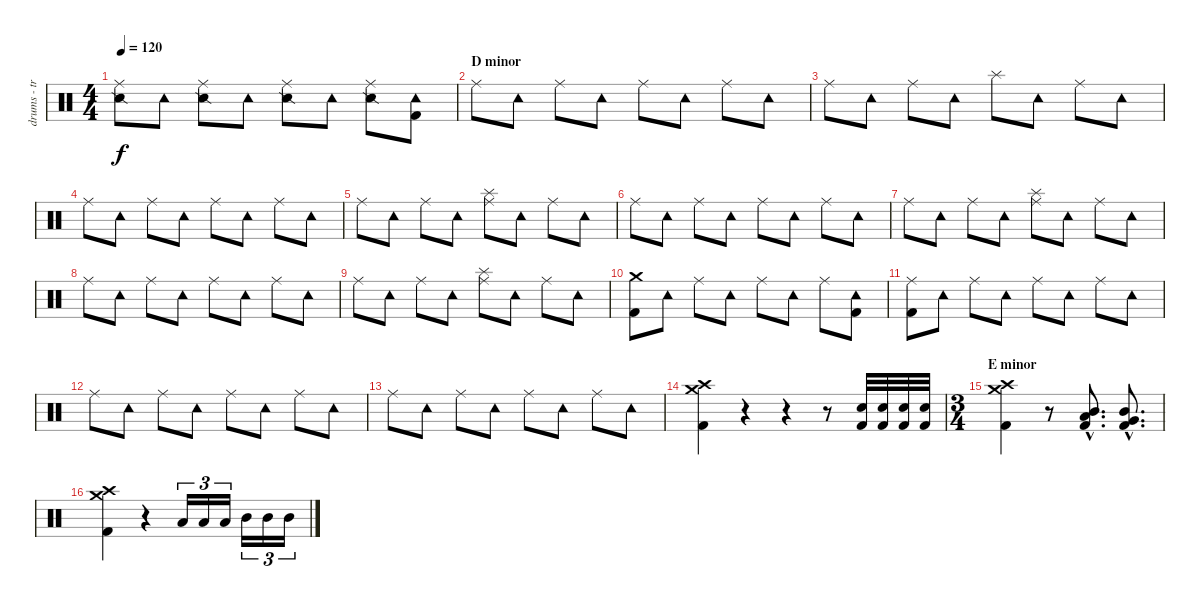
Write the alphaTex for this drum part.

\track ("drums - trash and prog sections" "drums - tr") {instrument percussion}
\staff {score}
\articulation defaults
\ts (4 4)
\tempo 120
\clef neutral
\ks c
("Ride (middle)" "Snare (side stick) 2").8{dy f} "Tambourine (hit)".8 ("Ride (middle)" "Snare (side stick) 2").8 "Tambourine (hit)".8 ("Ride (middle)" "Snare (side stick) 2").8 "Tambourine (hit)".8 ("Ride (middle)" "Snare (side stick) 2").8 ("Tambourine (hit)" "Kick (hit) 2").8 |
\section ("" "D minor")
"Ride (middle)".8 "Tambourine (hit)".8 "Ride (middle)".8 "Tambourine (hit)".8 "Ride (middle)".8 "Tambourine (hit)".8 "Ride (middle)".8 "Tambourine (hit)".8 |
"Ride (middle)".8 "Tambourine (hit)".8 "Ride (middle)".8 "Tambourine (hit)".8 "Splash (hit)".8 "Tambourine (hit)".8 "Ride (middle)".8 "Tambourine (hit)".8 |
"Ride (middle)".8 "Tambourine (hit)".8 "Ride (middle)".8 "Tambourine (hit)".8 "Ride (middle)".8 "Tambourine (hit)".8 "Ride (middle)".8 "Tambourine (hit)".8 |
"Ride (middle)".8 "Tambourine (hit)".8 "Ride (middle)".8 "Tambourine (hit)".8 ("Ride (middle)" "Splash (hit)").8 "Tambourine (hit)".8 "Ride (middle)".8 "Tambourine (hit)".8 |
"Ride (middle)".8 "Tambourine (hit)".8 "Ride (middle)".8 "Tambourine (hit)".8 "Ride (middle)".8 "Tambourine (hit)".8 "Ride (middle)".8 "Tambourine (hit)".8 |
"Ride (middle)".8 "Tambourine (hit)".8 "Ride (middle)".8 "Tambourine (hit)".8 ("Ride (middle)" "Splash (hit)").8 "Tambourine (hit)".8 "Ride (middle)".8 "Tambourine (hit)".8 |
"Ride (middle)".8 "Tambourine (hit)".8 "Ride (middle)".8 "Tambourine (hit)".8 "Ride (middle)".8 "Tambourine (hit)".8 "Ride (middle)".8 "Tambourine (hit)".8 |
"Ride (middle)".8 "Tambourine (hit)".8 "Ride (middle)".8 "Tambourine (hit)".8 ("Ride (middle)" "Splash (hit)").8 "Tambourine (hit)".8 "Ride (middle)".8 "Tambourine (hit)".8 |
("Crash medium (hit)" "Kick (hit) 2").8 "Tambourine (hit)".8 "Ride (middle)".8 "Tambourine (hit)".8 "Ride (middle)".8 "Tambourine (hit)".8 "Ride (middle)".8 ("Tambourine (hit)" "Kick (hit) 2").8 |
("Ride (middle)" "Kick (hit) 2").8 "Tambourine (hit)".8 "Ride (middle)".8 "Tambourine (hit)".8 "Ride (middle)".8 "Tambourine (hit)".8 "Ride (middle)".8 "Tambourine (hit)".8 |
"Ride (middle)".8 "Tambourine (hit)".8 "Ride (middle)".8 "Tambourine (hit)".8 "Ride (middle)".8 "Tambourine (hit)".8 "Ride (middle)".8 "Tambourine (hit)".8 |
"Ride (middle)".8 "Tambourine (hit)".8 "Ride (middle)".8 "Tambourine (hit)".8 "Ride (middle)".8 "Tambourine (hit)".8 "Ride (middle)".8 "Tambourine (hit)".8 |
("Crash medium (hit)" "Crash high (hit)" "Kick (hit) 2").4 r.4 r.4 r.8 ("Snare (hit) 2" "Kick (hit) 2").32 ("Snare (hit) 2" "Kick (hit) 2").32 ("Snare (hit) 2" "Kick (hit) 2").32 ("Snare (hit) 2" "Kick (hit) 2").32 |
\ts (3 4)
\section ("" "E minor")
("Crash medium (hit)" "Crash high (hit)" "Kick (hit) 2").4 r.8 ("Mid Tom (hit)"{hac} "Low Tom (hit)"{hac} "Kick (hit) 2"{hac}).8{d} ("Very Low Tom (hit)"{hac} "Mid Tom (hit)"{hac} "Kick (hit) 2"{hac}).8{d} |
("Crash medium (hit)" "Crash high (hit)" "Kick (hit) 2").4 r.4 "Low Tom (hit)".16{tu (3 2)} "Low Tom (hit)".16{tu (3 2)} "Low Tom (hit)".16{tu (3 2)} "Mid Tom (hit)".16{tu (3 2)} "Mid Tom (hit)".16{tu (3 2)} "Mid Tom (hit)".16{tu (3 2)}
